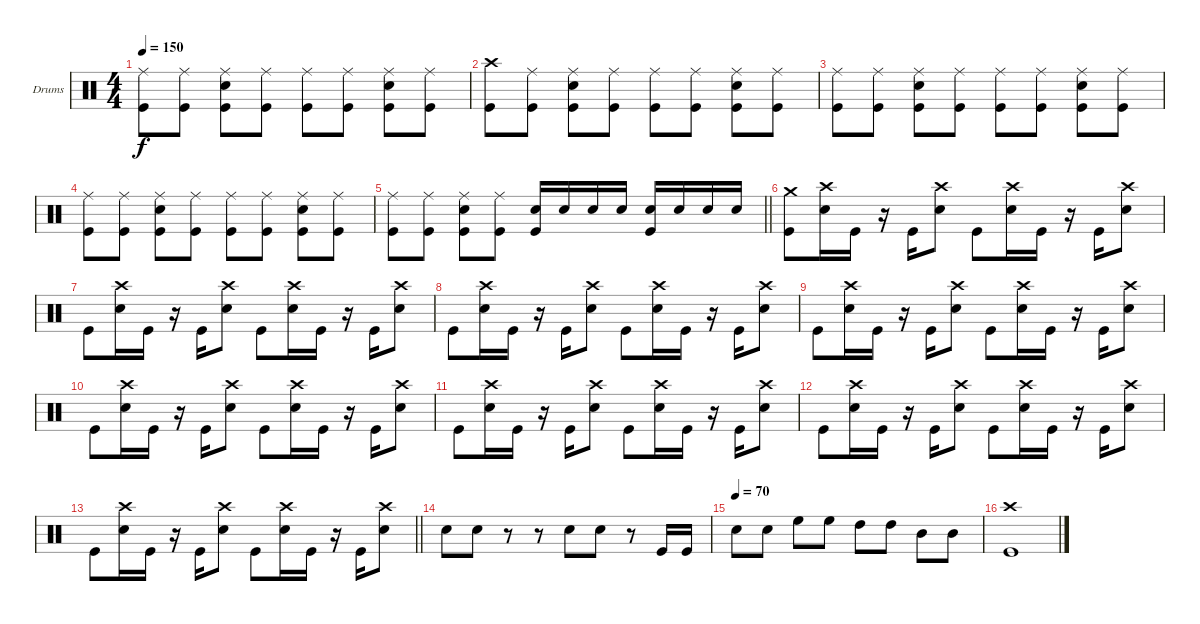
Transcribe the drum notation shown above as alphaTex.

\bracketExtendMode nobrackets
\firstSystemTrackNameOrientation horizontal
\otherSystemsTrackNameOrientation horizontal
\track ("Drumkit" "Drums") {instrument percussion}
\staff {score}
\articulation defaults
\ts (4 4)
\tempo 150
\clef neutral
\ks c
("Kick (hit)" "Ride (middle)").8{dy f} ("Kick (hit)" "Ride (middle)").8 ("Snare (hit) 2" "Kick (hit)" "Ride (middle)").8 ("Kick (hit)" "Ride (middle)").8 ("Kick (hit)" "Ride (middle)").8 ("Kick (hit)" "Ride (middle)").8 ("Snare (hit) 2" "Kick (hit)" "Ride (middle)").8 ("Kick (hit)" "Ride (middle)").8 |
("Kick (hit)" "Crash high (hit)").8 ("Kick (hit)" "Ride (middle)").8 ("Snare (hit) 2" "Kick (hit)" "Ride (middle)").8 ("Kick (hit)" "Ride (middle)").8 ("Kick (hit)" "Ride (middle)").8 ("Kick (hit)" "Ride (middle)").8 ("Snare (hit) 2" "Kick (hit)" "Ride (middle)").8 ("Kick (hit)" "Ride (middle)").8 |
("Kick (hit)" "Ride (middle)").8 ("Kick (hit)" "Ride (middle)").8 ("Snare (hit) 2" "Kick (hit)" "Ride (middle)").8 ("Kick (hit)" "Ride (middle)").8 ("Kick (hit)" "Ride (middle)").8 ("Kick (hit)" "Ride (middle)").8 ("Snare (hit) 2" "Kick (hit)" "Ride (middle)").8 ("Kick (hit)" "Ride (middle)").8 |
("Kick (hit)" "Ride (middle)").8 ("Kick (hit)" "Ride (middle)").8 ("Snare (hit) 2" "Kick (hit)" "Ride (middle)").8 ("Kick (hit)" "Ride (middle)").8 ("Kick (hit)" "Ride (middle)").8 ("Kick (hit)" "Ride (middle)").8 ("Snare (hit) 2" "Kick (hit)" "Ride (middle)").8 ("Kick (hit)" "Ride (middle)").8 |
\barLineRight lightlight
("Kick (hit)" "Ride (middle)").8 ("Kick (hit)" "Ride (middle)").8 ("Snare (hit) 2" "Kick (hit)" "Ride (middle)").8 ("Kick (hit)" "Ride (middle)").8 ("Snare (hit) 2" "Kick (hit)").16 "Snare (hit) 2".16 "Snare (hit) 2".16 "Snare (hit) 2".16 ("Snare (hit) 2" "Kick (hit)").16 "Snare (hit) 2".16 "Snare (hit) 2".16 "Snare (hit) 2".16 |
("Crash medium (hit)" "Kick (hit)").8 ("Crash high (hit)" "Snare (hit) 2").16 "Kick (hit)".16 r.16 "Kick (hit)".16 ("Crash high (hit)" "Snare (hit) 2").8 "Kick (hit)".8 ("Crash high (hit)" "Snare (hit) 2").16 "Kick (hit)".16 r.16 "Kick (hit)".16 ("Crash high (hit)" "Snare (hit) 2").8 |
"Kick (hit)".8 ("Crash high (hit)" "Snare (hit) 2").16 "Kick (hit)".16 r.16 "Kick (hit)".16 ("Crash high (hit)" "Snare (hit) 2").8 "Kick (hit)".8 ("Crash high (hit)" "Snare (hit) 2").16 "Kick (hit)".16 r.16 "Kick (hit)".16 ("Crash high (hit)" "Snare (hit) 2").8 |
"Kick (hit)".8 ("Crash high (hit)" "Snare (hit) 2").16 "Kick (hit)".16 r.16 "Kick (hit)".16 ("Crash high (hit)" "Snare (hit) 2").8 "Kick (hit)".8 ("Crash high (hit)" "Snare (hit) 2").16 "Kick (hit)".16 r.16 "Kick (hit)".16 ("Crash high (hit)" "Snare (hit) 2").8 |
"Kick (hit)".8 ("Crash high (hit)" "Snare (hit) 2").16 "Kick (hit)".16 r.16 "Kick (hit)".16 ("Crash high (hit)" "Snare (hit) 2").8 "Kick (hit)".8 ("Crash high (hit)" "Snare (hit) 2").16 "Kick (hit)".16 r.16 "Kick (hit)".16 ("Crash high (hit)" "Snare (hit) 2").8 |
"Kick (hit)".8 ("Crash high (hit)" "Snare (hit) 2").16 "Kick (hit)".16 r.16 "Kick (hit)".16 ("Crash high (hit)" "Snare (hit) 2").8 "Kick (hit)".8 ("Crash high (hit)" "Snare (hit) 2").16 "Kick (hit)".16 r.16 "Kick (hit)".16 ("Crash high (hit)" "Snare (hit) 2").8 |
"Kick (hit)".8 ("Crash high (hit)" "Snare (hit) 2").16 "Kick (hit)".16 r.16 "Kick (hit)".16 ("Crash high (hit)" "Snare (hit) 2").8 "Kick (hit)".8 ("Crash high (hit)" "Snare (hit) 2").16 "Kick (hit)".16 r.16 "Kick (hit)".16 ("Crash high (hit)" "Snare (hit) 2").8 |
"Kick (hit)".8 ("Crash high (hit)" "Snare (hit) 2").16 "Kick (hit)".16 r.16 "Kick (hit)".16 ("Crash high (hit)" "Snare (hit) 2").8 "Kick (hit)".8 ("Crash high (hit)" "Snare (hit) 2").16 "Kick (hit)".16 r.16 "Kick (hit)".16 ("Crash high (hit)" "Snare (hit) 2").8 |
\barLineRight lightlight "Kick (hit)".8
("Crash high (hit)" "Snare (hit) 2").16 "Kick (hit)".16 r.16 "Kick (hit)".16 ("Crash high (hit)" "Snare (hit) 2").8 "Kick (hit)".8 ("Crash high (hit)" "Snare (hit) 2").16 "Kick (hit)".16 r.16 "Kick (hit)".16 ("Crash high (hit)" "Snare (hit) 2").8 |
"Snare (hit) 2".8 "Snare (hit) 2".8 r.8 r.8 "Snare (hit) 2".8 "Snare (hit) 2".8 r.8 "Kick (hit)".16 "Kick (hit)".16 |
\tempo (70)
"Snare (hit) 2".8 "Snare (hit) 2".8 "High Floor Tom (hit)".8 "High Floor Tom (hit)".8 "High Tom (hit)".8 "High Tom (hit)".8 "Mid Tom (hit)".8 "Mid Tom (hit)".8 |
("Crash high (hit)" "Kick (hit)").1
